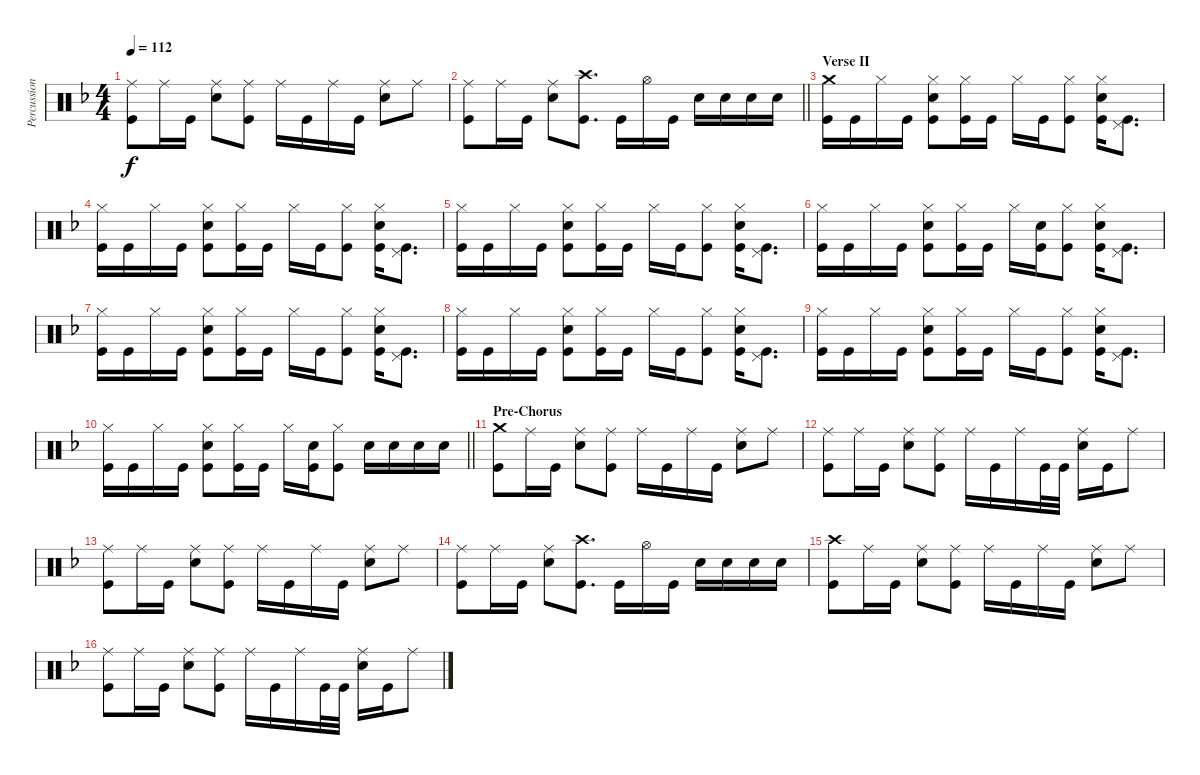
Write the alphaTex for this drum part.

\track ("Percussion" "Percussion") {instrument percussion}
\staff {score}
\articulation defaults
\ts (4 4)
\tempo 112
\clef neutral
\ks f
("Ride (middle)" "Kick (hit)").8{dy f} "Ride (middle)".16 "Kick (hit)".16 ("Ride (middle)" "Electric Snare (hit)").8 ("Ride (middle)" "Kick (hit)").8 "Ride (middle)".16 "Kick (hit)".16 "Ride (middle)".16 "Kick (hit)".16 ("Ride (middle)" "Electric Snare (hit)").8 "Ride (middle)".8 |
\barLineRight lightlight
("Ride (middle)" "Kick (hit)").8 "Ride (middle)".16 "Kick (hit)".16 ("Ride (middle)" "Electric Snare (hit)").8 ("Crash high (hit)" "Kick (hit)").8{d} "Kick (hit)".16 "Hi-Hat (open)".16 "Kick (hit)".16 "Electric Snare (hit)".16 "Electric Snare (hit)".16 "Electric Snare (hit)".16 "Electric Snare (hit)".16 |
\section ("" "Verse II")
("Crash medium (hit)" "Kick (hit)").16 "Kick (hit)".16 "Hi-Hat (closed)".16 "Kick (hit)".16 ("Hi-Hat (closed)" "Electric Snare (hit)" "Kick (hit)").8 ("Hi-Hat (closed)" "Kick (hit)").16 "Kick (hit)".16 "Hi-Hat (closed)".16 "Kick (hit)".16 ("Hi-Hat (closed)" "Kick (hit)").8 ("Hi-Hat (closed)" "Electric Snare (hit)" "Kick (hit)").16 ("Pedal Hi-Hat (hit)" "Kick (hit)").8{d} |
("Hi-Hat (closed)" "Kick (hit)").16 "Kick (hit)".16 "Hi-Hat (closed)".16 "Kick (hit)".16 ("Hi-Hat (closed)" "Electric Snare (hit)" "Kick (hit)").8 ("Hi-Hat (closed)" "Kick (hit)").16 "Kick (hit)".16 "Hi-Hat (closed)".16 "Kick (hit)".16 ("Hi-Hat (closed)" "Kick (hit)").8 ("Hi-Hat (closed)" "Electric Snare (hit)" "Kick (hit)").16 ("Pedal Hi-Hat (hit)" "Kick (hit)").8{d} |
("Hi-Hat (closed)" "Kick (hit)").16 "Kick (hit)".16 "Hi-Hat (closed)".16 "Kick (hit)".16 ("Hi-Hat (closed)" "Electric Snare (hit)" "Kick (hit)").8 ("Hi-Hat (closed)" "Kick (hit)").16 "Kick (hit)".16 "Hi-Hat (closed)".16 "Kick (hit)".16 ("Hi-Hat (closed)" "Kick (hit)").8 ("Hi-Hat (closed)" "Electric Snare (hit)" "Kick (hit)").16 ("Pedal Hi-Hat (hit)" "Kick (hit)").8{d} |
("Hi-Hat (closed)" "Kick (hit)").16 "Kick (hit)".16 "Hi-Hat (closed)".16 "Kick (hit)".16 ("Hi-Hat (closed)" "Electric Snare (hit)" "Kick (hit)").8 ("Hi-Hat (closed)" "Kick (hit)").16 "Kick (hit)".16 "Hi-Hat (closed)".16 ("Electric Snare (hit)" "Kick (hit)").16 ("Hi-Hat (closed)" "Kick (hit)").8 ("Hi-Hat (closed)" "Electric Snare (hit)" "Kick (hit)").16 ("Pedal Hi-Hat (hit)" "Kick (hit)").8{d} |
("Hi-Hat (closed)" "Kick (hit)").16 "Kick (hit)".16 "Hi-Hat (closed)".16 "Kick (hit)".16 ("Hi-Hat (closed)" "Electric Snare (hit)" "Kick (hit)").8 ("Hi-Hat (closed)" "Kick (hit)").16 "Kick (hit)".16 "Hi-Hat (closed)".16 "Kick (hit)".16 ("Hi-Hat (closed)" "Kick (hit)").8 ("Hi-Hat (closed)" "Electric Snare (hit)" "Kick (hit)").16 ("Pedal Hi-Hat (hit)" "Kick (hit)").8{d} |
("Hi-Hat (closed)" "Kick (hit)").16 "Kick (hit)".16 "Hi-Hat (closed)".16 "Kick (hit)".16 ("Hi-Hat (closed)" "Electric Snare (hit)" "Kick (hit)").8 ("Hi-Hat (closed)" "Kick (hit)").16 "Kick (hit)".16 "Hi-Hat (closed)".16 "Kick (hit)".16 ("Hi-Hat (closed)" "Kick (hit)").8 ("Hi-Hat (closed)" "Electric Snare (hit)" "Kick (hit)").16 ("Pedal Hi-Hat (hit)" "Kick (hit)").8{d} |
("Hi-Hat (closed)" "Kick (hit)").16 "Kick (hit)".16 "Hi-Hat (closed)".16 "Kick (hit)".16 ("Hi-Hat (closed)" "Electric Snare (hit)" "Kick (hit)").8 ("Hi-Hat (closed)" "Kick (hit)").16 "Kick (hit)".16 "Hi-Hat (closed)".16 "Kick (hit)".16 ("Hi-Hat (closed)" "Kick (hit)").8 ("Hi-Hat (closed)" "Electric Snare (hit)" "Kick (hit)").16 ("Pedal Hi-Hat (hit)" "Kick (hit)").8{d} |
\barLineRight lightlight
("Hi-Hat (closed)" "Kick (hit)").16 "Kick (hit)".16 "Hi-Hat (closed)".16 "Kick (hit)".16 ("Hi-Hat (closed)" "Electric Snare (hit)" "Kick (hit)").8 ("Hi-Hat (closed)" "Kick (hit)").16 "Kick (hit)".16 "Hi-Hat (closed)".16 ("Electric Snare (hit)" "Kick (hit)").16 ("Hi-Hat (closed)" "Kick (hit)").8 "Electric Snare (hit)".16 "Electric Snare (hit)".16 "Electric Snare (hit)".16 "Electric Snare (hit)".16 |
\section ("" "Pre-Chorus")
("Crash medium (hit)" "Kick (hit)").8 "Ride (middle)".16 "Kick (hit)".16 ("Ride (middle)" "Electric Snare (hit)").8 ("Ride (middle)" "Kick (hit)").8 "Ride (middle)".16 "Kick (hit)".16 "Ride (middle)".16 "Kick (hit)".16 ("Ride (middle)" "Electric Snare (hit)").8 "Ride (middle)".8 |
("Ride (middle)" "Kick (hit)").8 "Ride (middle)".16 "Kick (hit)".16 ("Ride (middle)" "Electric Snare (hit)").8 ("Ride (middle)" "Kick (hit)").8 "Ride (middle)".16 "Kick (hit)".16 "Ride (middle)".16 "Kick (hit)".32 "Kick (hit)".32 ("Ride (middle)" "Electric Snare (hit)").16 "Kick (hit)".16 "Ride (middle)".8 |
("Ride (middle)" "Kick (hit)").8 "Ride (middle)".16 "Kick (hit)".16 ("Ride (middle)" "Electric Snare (hit)").8 ("Ride (middle)" "Kick (hit)").8 "Ride (middle)".16 "Kick (hit)".16 "Ride (middle)".16 "Kick (hit)".16 ("Ride (middle)" "Electric Snare (hit)").8 "Ride (middle)".8 |
("Ride (middle)" "Kick (hit)").8 "Ride (middle)".16 "Kick (hit)".16 ("Ride (middle)" "Electric Snare (hit)").8 ("Crash high (hit)" "Kick (hit)").8{d} "Kick (hit)".16 "Hi-Hat (open)".16 "Kick (hit)".16 "Electric Snare (hit)".16 "Electric Snare (hit)".16 "Electric Snare (hit)".16 "Electric Snare (hit)".16 |
("Crash high (hit)" "Kick (hit)").8 "Ride (middle)".16 "Kick (hit)".16 ("Ride (middle)" "Electric Snare (hit)").8 ("Ride (middle)" "Kick (hit)").8 "Ride (middle)".16 "Kick (hit)".16 "Ride (middle)".16 "Kick (hit)".16 ("Ride (middle)" "Electric Snare (hit)").8 "Ride (middle)".8 |
("Ride (middle)" "Kick (hit)").8 "Ride (middle)".16 "Kick (hit)".16 ("Ride (middle)" "Electric Snare (hit)").8 ("Ride (middle)" "Kick (hit)").8 "Ride (middle)".16 "Kick (hit)".16 "Ride (middle)".16 "Kick (hit)".32 "Kick (hit)".32 ("Ride (middle)" "Electric Snare (hit)").16 "Kick (hit)".16 "Ride (middle)".8
